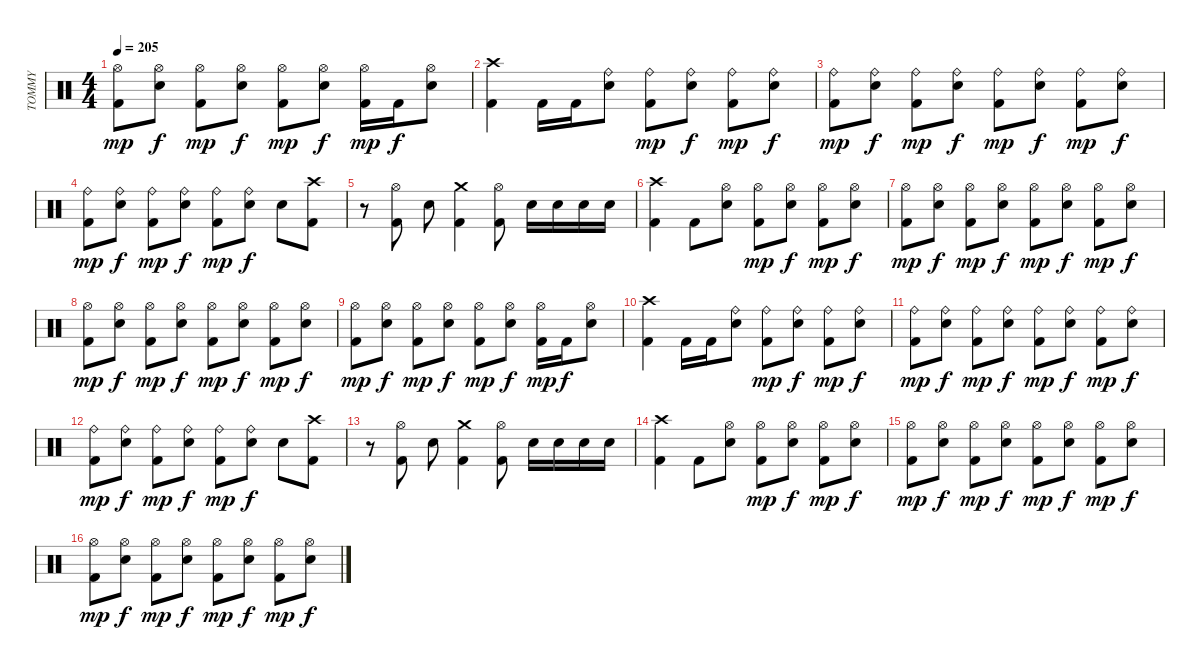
\track ("TOMMY" "TOMMY") {instrument percussion}
\staff {score}
\articulation defaults
\ts (4 4)
\tempo 205
\clef neutral
\ks c
("Kick (hit) 2" "Hi-Hat (open)").8{dy mp} ("Snare (hit) 2" "Hi-Hat (open)").8{dy f} ("Kick (hit) 2" "Hi-Hat (open)").8{dy mp} ("Snare (hit) 2" "Hi-Hat (open)").8{dy f} ("Kick (hit) 2" "Hi-Hat (open)").8{dy mp} ("Snare (hit) 2" "Hi-Hat (open)").8{dy f} ("Kick (hit) 2" "Hi-Hat (open)").16{dy mp} "Kick (hit) 2".16{dy f} ("Snare (hit) 2" "Hi-Hat (open)").8 |
("Kick (hit) 2" "Crash high (hit)").4 "Kick (hit) 2".16 "Kick (hit) 2".16 ("Snare (hit) 2" "Ride (bell)").8 ("Kick (hit) 2" "Ride (bell)").8{dy mp} ("Snare (hit) 2" "Ride (bell)").8{dy f} ("Kick (hit) 2" "Ride (bell)").8{dy mp} ("Snare (hit) 2" "Ride (bell)").8{dy f} |
("Kick (hit) 2" "Ride (bell)").8{dy mp} ("Snare (hit) 2" "Ride (bell)").8{dy f} ("Kick (hit) 2" "Ride (bell)").8{dy mp} ("Snare (hit) 2" "Ride (bell)").8{dy f} ("Kick (hit) 2" "Ride (bell)").8{dy mp} ("Snare (hit) 2" "Ride (bell)").8{dy f} ("Kick (hit) 2" "Ride (bell)").8{dy mp} ("Snare (hit) 2" "Ride (bell)").8{dy f} |
("Kick (hit) 2" "Ride (bell)").8{dy mp} ("Snare (hit) 2" "Ride (bell)").8{dy f} ("Kick (hit) 2" "Ride (bell)").8{dy mp} ("Snare (hit) 2" "Ride (bell)").8{dy f} ("Kick (hit) 2" "Ride (bell)").8{dy mp} ("Snare (hit) 2" "Ride (bell)").8{dy f} "Snare (hit) 2".8 ("Kick (hit) 2" "Crash high (hit)").8 |
r.8 ("Kick (hit) 2" "Hi-Hat (open)").8 "Snare (hit) 2".8 ("Kick (hit) 2" "Crash medium (hit)").4 ("Kick (hit) 2" "Hi-Hat (open)").8 "Snare (hit) 2".16 "Snare (hit) 2".16 "Snare (hit) 2".16 "Snare (hit) 2".16 |
("Kick (hit) 2" "Crash high (hit)").4 "Kick (hit) 2".8 ("Snare (hit) 2" "Hi-Hat (open)").8 ("Kick (hit) 2" "Hi-Hat (open)").8{dy mp} ("Snare (hit) 2" "Hi-Hat (open)").8{dy f} ("Kick (hit) 2" "Hi-Hat (open)").8{dy mp} ("Snare (hit) 2" "Hi-Hat (open)").8{dy f} |
("Kick (hit) 2" "Hi-Hat (open)").8{dy mp} ("Snare (hit) 2" "Hi-Hat (open)").8{dy f} ("Kick (hit) 2" "Hi-Hat (open)").8{dy mp} ("Snare (hit) 2" "Hi-Hat (open)").8{dy f} ("Kick (hit) 2" "Hi-Hat (open)").8{dy mp} ("Snare (hit) 2" "Hi-Hat (open)").8{dy f} ("Kick (hit) 2" "Hi-Hat (open)").8{dy mp} ("Snare (hit) 2" "Hi-Hat (open)").8{dy f} |
("Kick (hit) 2" "Hi-Hat (open)").8{dy mp} ("Snare (hit) 2" "Hi-Hat (open)").8{dy f} ("Kick (hit) 2" "Hi-Hat (open)").8{dy mp} ("Snare (hit) 2" "Hi-Hat (open)").8{dy f} ("Kick (hit) 2" "Hi-Hat (open)").8{dy mp} ("Snare (hit) 2" "Hi-Hat (open)").8{dy f} ("Kick (hit) 2" "Hi-Hat (open)").8{dy mp} ("Snare (hit) 2" "Hi-Hat (open)").8{dy f} |
("Kick (hit) 2" "Hi-Hat (open)").8{dy mp} ("Snare (hit) 2" "Hi-Hat (open)").8{dy f} ("Kick (hit) 2" "Hi-Hat (open)").8{dy mp} ("Snare (hit) 2" "Hi-Hat (open)").8{dy f} ("Kick (hit) 2" "Hi-Hat (open)").8{dy mp} ("Snare (hit) 2" "Hi-Hat (open)").8{dy f} ("Kick (hit) 2" "Hi-Hat (open)").16{dy mp} "Kick (hit) 2".16{dy f} ("Snare (hit) 2" "Hi-Hat (open)").8 |
("Kick (hit) 2" "Crash high (hit)").4 "Kick (hit) 2".16 "Kick (hit) 2".16 ("Snare (hit) 2" "Ride (bell)").8 ("Kick (hit) 2" "Ride (bell)").8{dy mp} ("Snare (hit) 2" "Ride (bell)").8{dy f} ("Kick (hit) 2" "Ride (bell)").8{dy mp} ("Snare (hit) 2" "Ride (bell)").8{dy f} |
("Kick (hit) 2" "Ride (bell)").8{dy mp} ("Snare (hit) 2" "Ride (bell)").8{dy f} ("Kick (hit) 2" "Ride (bell)").8{dy mp} ("Snare (hit) 2" "Ride (bell)").8{dy f} ("Kick (hit) 2" "Ride (bell)").8{dy mp} ("Snare (hit) 2" "Ride (bell)").8{dy f} ("Kick (hit) 2" "Ride (bell)").8{dy mp} ("Snare (hit) 2" "Ride (bell)").8{dy f} |
("Kick (hit) 2" "Ride (bell)").8{dy mp} ("Snare (hit) 2" "Ride (bell)").8{dy f} ("Kick (hit) 2" "Ride (bell)").8{dy mp} ("Snare (hit) 2" "Ride (bell)").8{dy f} ("Kick (hit) 2" "Ride (bell)").8{dy mp} ("Snare (hit) 2" "Ride (bell)").8{dy f} "Snare (hit) 2".8 ("Kick (hit) 2" "Crash high (hit)").8 |
r.8 ("Kick (hit) 2" "Hi-Hat (open)").8 "Snare (hit) 2".8 ("Kick (hit) 2" "Crash medium (hit)").4 ("Kick (hit) 2" "Hi-Hat (open)").8 "Snare (hit) 2".16 "Snare (hit) 2".16 "Snare (hit) 2".16 "Snare (hit) 2".16 |
("Kick (hit) 2" "Crash high (hit)").4 "Kick (hit) 2".8 ("Snare (hit) 2" "Hi-Hat (open)").8 ("Kick (hit) 2" "Hi-Hat (open)").8{dy mp} ("Snare (hit) 2" "Hi-Hat (open)").8{dy f} ("Kick (hit) 2" "Hi-Hat (open)").8{dy mp} ("Snare (hit) 2" "Hi-Hat (open)").8{dy f} |
("Kick (hit) 2" "Hi-Hat (open)").8{dy mp} ("Snare (hit) 2" "Hi-Hat (open)").8{dy f} ("Kick (hit) 2" "Hi-Hat (open)").8{dy mp} ("Snare (hit) 2" "Hi-Hat (open)").8{dy f} ("Kick (hit) 2" "Hi-Hat (open)").8{dy mp} ("Snare (hit) 2" "Hi-Hat (open)").8{dy f} ("Kick (hit) 2" "Hi-Hat (open)").8{dy mp} ("Snare (hit) 2" "Hi-Hat (open)").8{dy f} |
("Kick (hit) 2" "Hi-Hat (open)").8{dy mp} ("Snare (hit) 2" "Hi-Hat (open)").8{dy f} ("Kick (hit) 2" "Hi-Hat (open)").8{dy mp} ("Snare (hit) 2" "Hi-Hat (open)").8{dy f} ("Kick (hit) 2" "Hi-Hat (open)").8{dy mp} ("Snare (hit) 2" "Hi-Hat (open)").8{dy f} ("Kick (hit) 2" "Hi-Hat (open)").8{dy mp} ("Snare (hit) 2" "Hi-Hat (open)").8{dy f}
